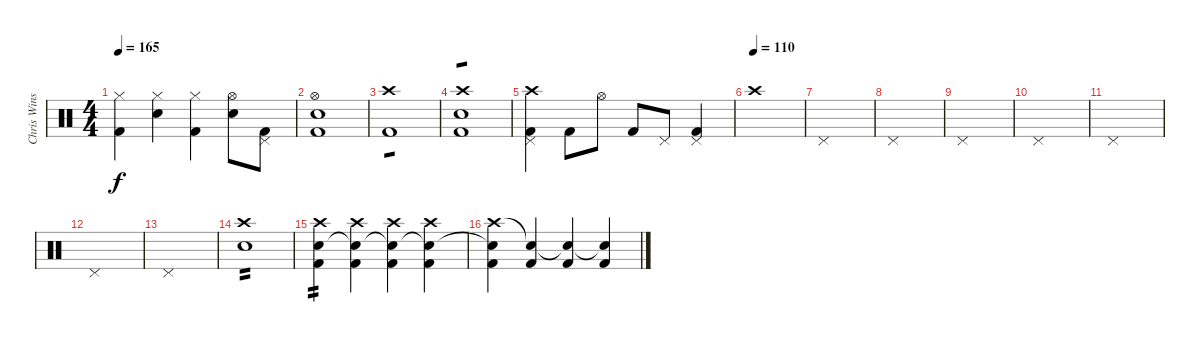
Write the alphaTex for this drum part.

\track ("Chris Winship (Bass)" "Chris Wins") {instrument percussion}
\staff {score}
\articulation defaults
\ts (4 4)
\tempo 165
\clef neutral
\ks c
("Hi-Hat (closed)" "Kick (hit) 2").4{dy f} ("Hi-Hat (closed)" "Snare (hit) 2").4 ("Hi-Hat (closed)" "Kick (hit) 2").4 ("Hi-Hat (open)" "Snare (hit) 2").8 ("Pedal Hi-Hat (hit)" "Kick (hit) 2").8 |
("Kick (hit) 2" "Hi-Hat (open)" "Snare (hit) 2").1 |
("Crash high (hit)" "Kick (hit) 2").1{tp 1} |
("Kick (hit) 2" "Crash high (hit)" "Electric Snare (hit)").1{tp 1} |
("Crash high (hit)" "Pedal Hi-Hat (hit)" "Kick (hit) 2").4 "Kick (hit) 2".8 "Hi-Hat (open)".8 "Kick (hit) 2".8 "Pedal Hi-Hat (hit)".8 ("Kick (hit) 2" "Pedal Hi-Hat (hit)").4 |
\tempo (110)
"Crash high (hit)".1 |
"Pedal Hi-Hat (hit)".1 |
"Pedal Hi-Hat (hit)".1 |
"Pedal Hi-Hat (hit)".1 |
"Pedal Hi-Hat (hit)".1 |
"Pedal Hi-Hat (hit)".1 |
"Pedal Hi-Hat (hit)".1 |
"Pedal Hi-Hat (hit)".1 |
("Crash high (hit)" "Snare (hit) 2").1{tp 2} |
("Crash high (hit)" "Snare (hit) 2" "Kick (hit) 2").4{tp 2} ("Crash high (hit)" "Snare (hit)"{t} "Kick (hit) 2").4 ("Crash high (hit)" "Snare (hit)"{t} "Kick (hit) 2").4 ("Crash high (hit)" "Snare (hit)"{t} "Kick (hit) 2").4 |
("Crash high (hit)" "Snare (hit)"{t} "Kick (hit) 2").4 ("Snare (hit)"{t} "Kick (hit) 2").4 ("Snare (hit)"{t} "Kick (hit) 2").4 ("Snare (hit)"{t} "Kick (hit) 2").4
